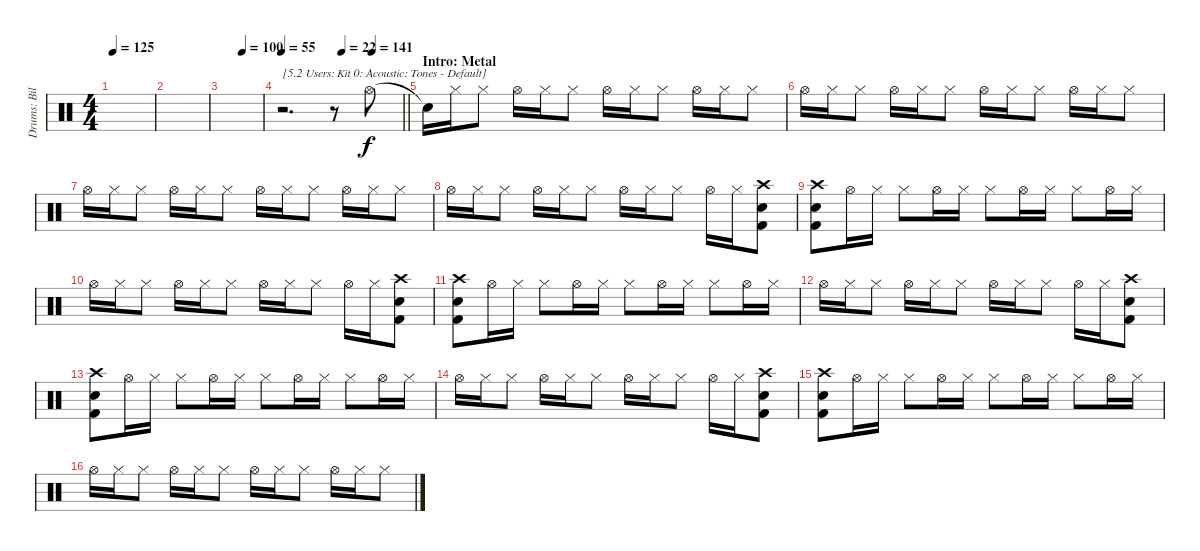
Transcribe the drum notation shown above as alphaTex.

\track ("Drums: Bill" "Drums: Bil") {instrument percussion}
\staff {score}
\articulation defaults
\ts (4 4)
\tempo 125
\clef neutral
\ks c
|
|
\tempo (100 0.5)
|
\tempo 55
\tempo (22 0.5)
\tempo (141 0.75)
\barLineRight lightlight
r.2{d txt "[5.2 Users: Kit 0: Acoustic: Tones - Default]"} r.8 "Hi-Hat (open)".8 |
\section ("" "Intro: Metal")
"Snare (hit)"{t}.16 "Hi-Hat (closed)".16 "Hi-Hat (closed)".8 "Hi-Hat (open)".16 "Hi-Hat (closed)".16 "Hi-Hat (closed)".8 "Hi-Hat (open)".16 "Hi-Hat (closed)".16 "Hi-Hat (closed)".8 "Hi-Hat (open)".16 "Hi-Hat (closed)".16 "Hi-Hat (closed)".8 |
"Hi-Hat (open)".16 "Hi-Hat (closed)".16 "Hi-Hat (closed)".8 "Hi-Hat (open)".16 "Hi-Hat (closed)".16 "Hi-Hat (closed)".8 "Hi-Hat (open)".16 "Hi-Hat (closed)".16 "Hi-Hat (closed)".8 "Hi-Hat (open)".16 "Hi-Hat (closed)".16 "Hi-Hat (closed)".8 |
"Hi-Hat (open)".16 "Hi-Hat (closed)".16 "Hi-Hat (closed)".8 "Hi-Hat (open)".16 "Hi-Hat (closed)".16 "Hi-Hat (closed)".8 "Hi-Hat (open)".16 "Hi-Hat (closed)".16 "Hi-Hat (closed)".8 "Hi-Hat (open)".16 "Hi-Hat (closed)".16 "Hi-Hat (closed)".8 |
"Hi-Hat (open)".16 "Hi-Hat (closed)".16 "Hi-Hat (closed)".8 "Hi-Hat (open)".16 "Hi-Hat (closed)".16 "Hi-Hat (closed)".8 "Hi-Hat (open)".16 "Hi-Hat (closed)".16 "Hi-Hat (closed)".8 "Hi-Hat (open)".16 "Hi-Hat (closed)".16 ("Crash high (hit)" "Snare (hit) 2" "Kick (hit) 2").8 |
("Crash high (hit)" "Snare (hit) 2" "Kick (hit) 2").8 "Hi-Hat (open)".16 "Hi-Hat (closed)".16 "Hi-Hat (closed)".8 "Hi-Hat (open)".16 "Hi-Hat (closed)".16 "Hi-Hat (closed)".8 "Hi-Hat (open)".16 "Hi-Hat (closed)".16 "Hi-Hat (closed)".8 "Hi-Hat (open)".16 "Hi-Hat (closed)".16 |
"Hi-Hat (open)".16 "Hi-Hat (closed)".16 "Hi-Hat (closed)".8 "Hi-Hat (open)".16 "Hi-Hat (closed)".16 "Hi-Hat (closed)".8 "Hi-Hat (open)".16 "Hi-Hat (closed)".16 "Hi-Hat (closed)".8 "Hi-Hat (open)".16 "Hi-Hat (closed)".16 ("Crash high (hit)" "Snare (hit) 2" "Kick (hit) 2").8 |
("Crash high (hit)" "Snare (hit) 2" "Kick (hit) 2").8 "Hi-Hat (open)".16 "Hi-Hat (closed)".16 "Hi-Hat (closed)".8 "Hi-Hat (open)".16 "Hi-Hat (closed)".16 "Hi-Hat (closed)".8 "Hi-Hat (open)".16 "Hi-Hat (closed)".16 "Hi-Hat (closed)".8 "Hi-Hat (open)".16 "Hi-Hat (closed)".16 |
"Hi-Hat (open)".16 "Hi-Hat (closed)".16 "Hi-Hat (closed)".8 "Hi-Hat (open)".16 "Hi-Hat (closed)".16 "Hi-Hat (closed)".8 "Hi-Hat (open)".16 "Hi-Hat (closed)".16 "Hi-Hat (closed)".8 "Hi-Hat (open)".16 "Hi-Hat (closed)".16 ("Crash high (hit)" "Snare (hit) 2" "Kick (hit) 2").8 |
("Crash high (hit)" "Snare (hit) 2" "Kick (hit) 2").8 "Hi-Hat (open)".16 "Hi-Hat (closed)".16 "Hi-Hat (closed)".8 "Hi-Hat (open)".16 "Hi-Hat (closed)".16 "Hi-Hat (closed)".8 "Hi-Hat (open)".16 "Hi-Hat (closed)".16 "Hi-Hat (closed)".8 "Hi-Hat (open)".16 "Hi-Hat (closed)".16 |
"Hi-Hat (open)".16 "Hi-Hat (closed)".16 "Hi-Hat (closed)".8 "Hi-Hat (open)".16 "Hi-Hat (closed)".16 "Hi-Hat (closed)".8 "Hi-Hat (open)".16 "Hi-Hat (closed)".16 "Hi-Hat (closed)".8 "Hi-Hat (open)".16 "Hi-Hat (closed)".16 ("Crash high (hit)" "Snare (hit) 2" "Kick (hit) 2").8 |
("Crash high (hit)" "Snare (hit) 2" "Kick (hit) 2").8 "Hi-Hat (open)".16 "Hi-Hat (closed)".16 "Hi-Hat (closed)".8 "Hi-Hat (open)".16 "Hi-Hat (closed)".16 "Hi-Hat (closed)".8 "Hi-Hat (open)".16 "Hi-Hat (closed)".16 "Hi-Hat (closed)".8 "Hi-Hat (open)".16 "Hi-Hat (closed)".16 |
"Hi-Hat (open)".16 "Hi-Hat (closed)".16 "Hi-Hat (closed)".8 "Hi-Hat (open)".16 "Hi-Hat (closed)".16 "Hi-Hat (closed)".8 "Hi-Hat (open)".16 "Hi-Hat (closed)".16 "Hi-Hat (closed)".8 "Hi-Hat (open)".16 "Hi-Hat (closed)".16 "Hi-Hat (closed)".8
